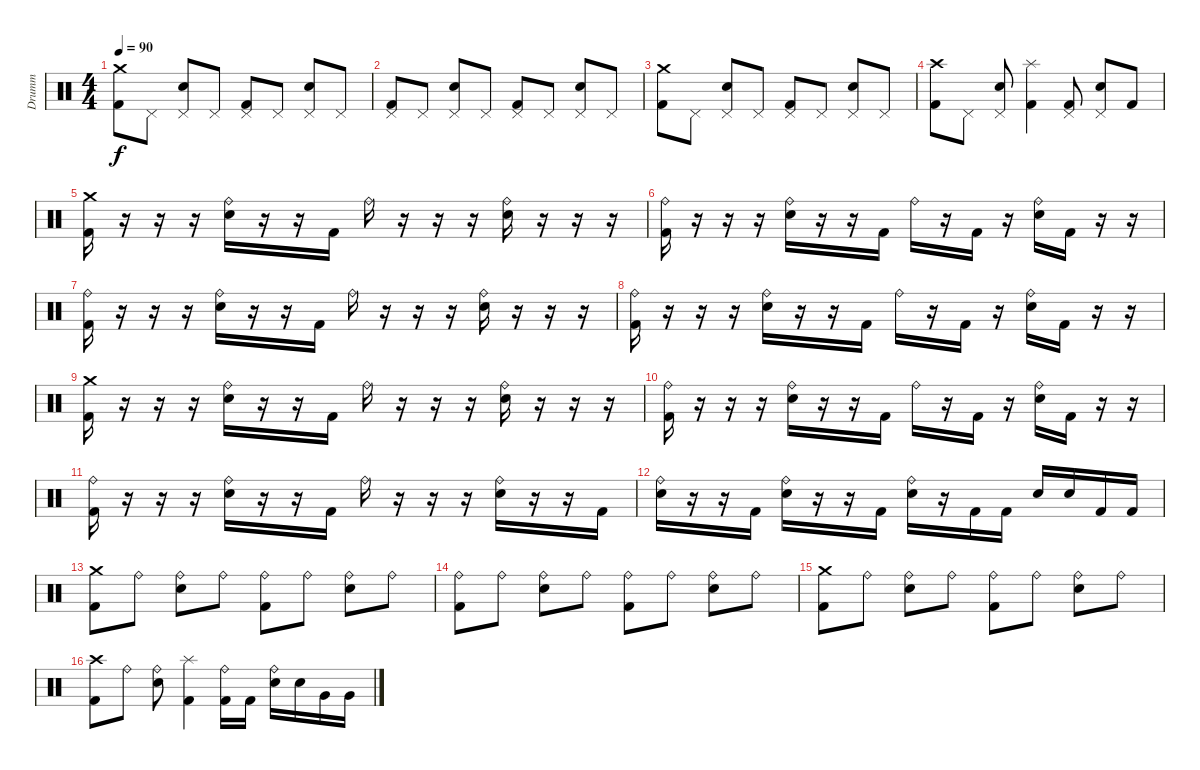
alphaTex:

\track ("Drumm" "Drumm") {instrument percussion}
\staff {score}
\articulation defaults
\ts (4 4)
\tempo 90
\clef neutral
\ks c
("Crash medium (hit)" "Kick (hit) 2").8{dy f} "Pedal Hi-Hat (hit)".8 ("Pedal Hi-Hat (hit)" "Snare (hit) 2").8 "Pedal Hi-Hat (hit)".8 ("Pedal Hi-Hat (hit)" "Kick (hit) 2").8 "Pedal Hi-Hat (hit)".8 ("Pedal Hi-Hat (hit)" "Snare (hit) 2").8 "Pedal Hi-Hat (hit)".8 |
("Pedal Hi-Hat (hit)" "Kick (hit) 2").8 "Pedal Hi-Hat (hit)".8 ("Pedal Hi-Hat (hit)" "Snare (hit) 2").8 "Pedal Hi-Hat (hit)".8 ("Pedal Hi-Hat (hit)" "Kick (hit) 2").8 "Pedal Hi-Hat (hit)".8 ("Pedal Hi-Hat (hit)" "Snare (hit) 2").8 "Pedal Hi-Hat (hit)".8 |
("Crash medium (hit)" "Kick (hit) 2").8 "Pedal Hi-Hat (hit)".8 ("Pedal Hi-Hat (hit)" "Snare (hit) 2").8 "Pedal Hi-Hat (hit)".8 ("Pedal Hi-Hat (hit)" "Kick (hit) 2").8 "Pedal Hi-Hat (hit)".8 ("Pedal Hi-Hat (hit)" "Snare (hit) 2").8 "Pedal Hi-Hat (hit)".8 |
("Crash high (hit)" "Kick (hit) 2").8 "Pedal Hi-Hat (hit)".8 ("Pedal Hi-Hat (hit)" "Snare (hit) 2").8 ("Splash (hit)" "Kick (hit) 2").4 ("Pedal Hi-Hat (hit)" "Kick (hit) 2").8 ("Pedal Hi-Hat (hit)" "Snare (hit) 2").8 "Kick (hit) 2".8 |
("Crash medium (hit)" "Kick (hit) 2").16 r.16 r.16 r.16 ("Ride (bell)" "Snare (hit) 2").16 r.16 r.16 "Kick (hit) 2".16 "Ride (bell)".16 r.16 r.16 r.16 ("Ride (bell)" "Snare (hit) 2").16 r.16 r.16 r.16 |
("Ride (bell)" "Kick (hit) 2").16 r.16 r.16 r.16 ("Ride (bell)" "Snare (hit) 2").16 r.16 r.16 "Kick (hit) 2".16 "Ride (bell)".16 r.16 "Kick (hit) 2".16 r.16 ("Ride (bell)" "Snare (hit) 2").16 "Kick (hit) 2".16 r.16 r.16 |
("Ride (bell)" "Kick (hit) 2").16 r.16 r.16 r.16 ("Ride (bell)" "Snare (hit) 2").16 r.16 r.16 "Kick (hit) 2".16 "Ride (bell)".16 r.16 r.16 r.16 ("Ride (bell)" "Snare (hit) 2").16 r.16 r.16 r.16 |
("Ride (bell)" "Kick (hit) 2").16 r.16 r.16 r.16 ("Ride (bell)" "Snare (hit) 2").16 r.16 r.16 "Kick (hit) 2".16 "Ride (bell)".16 r.16 "Kick (hit) 2".16 r.16 ("Ride (bell)" "Snare (hit) 2").16 "Kick (hit) 2".16 r.16 r.16 |
("Crash medium (hit)" "Kick (hit) 2").16 r.16 r.16 r.16 ("Ride (bell)" "Snare (hit) 2").16 r.16 r.16 "Kick (hit) 2".16 "Ride (bell)".16 r.16 r.16 r.16 ("Ride (bell)" "Snare (hit) 2").16 r.16 r.16 r.16 |
("Ride (bell)" "Kick (hit) 2").16 r.16 r.16 r.16 ("Ride (bell)" "Snare (hit) 2").16 r.16 r.16 "Kick (hit) 2".16 "Ride (bell)".16 r.16 "Kick (hit) 2".16 r.16 ("Ride (bell)" "Snare (hit) 2").16 "Kick (hit) 2".16 r.16 r.16 |
("Ride (bell)" "Kick (hit) 2").16 r.16 r.16 r.16 ("Ride (bell)" "Snare (hit) 2").16 r.16 r.16 "Kick (hit) 2".16 "Ride (bell)".16 r.16 r.16 r.16 ("Ride (bell)" "Snare (hit) 2").16 r.16 r.16 "Kick (hit) 2".16 |
("Ride (bell)" "Snare (hit) 2").16 r.16 r.16 "Kick (hit) 2".16 ("Ride (bell)" "Snare (hit) 2").16 r.16 r.16 "Kick (hit) 2".16 ("Ride (bell)" "Snare (hit) 2").16 r.16 "Kick (hit) 2".16 "Kick (hit) 2".16 "Snare (hit) 2".16 "Snare (hit) 2".16 "Kick (hit) 2".16 "Kick (hit) 2".16 |
("Crash medium (hit)" "Kick (hit) 2").8 "Ride (bell)".8 ("Ride (bell)" "Snare (hit) 2").8 "Ride (bell)".8 ("Ride (bell)" "Kick (hit) 2").8 "Ride (bell)".8 ("Ride (bell)" "Snare (hit) 2").8 "Ride (bell)".8 |
("Ride (bell)" "Kick (hit) 2").8 "Ride (bell)".8 ("Ride (bell)" "Snare (hit) 2").8 "Ride (bell)".8 ("Ride (bell)" "Kick (hit) 2").8 "Ride (bell)".8 ("Ride (bell)" "Snare (hit) 2").8 "Ride (bell)".8 |
("Crash medium (hit)" "Kick (hit) 2").8 "Ride (bell)".8 ("Ride (bell)" "Snare (hit) 2").8 "Ride (bell)".8 ("Ride (bell)" "Kick (hit) 2").8 "Ride (bell)".8 ("Ride (bell)" "Snare (hit) 2").8 "Ride (bell)".8 |
("Crash high (hit)" "Kick (hit) 2").8 "Ride (bell)".8 ("Ride (bell)" "Snare (hit) 2").8 ("Splash (hit)" "Kick (hit) 2").4 ("Ride (bell)" "Kick (hit) 2").16 "Kick (hit) 2".16 ("Ride (bell)" "Snare (hit) 2").16 "Snare (hit) 2".16 "Very Low Tom (hit)".16 "Very Low Tom (hit)".16
